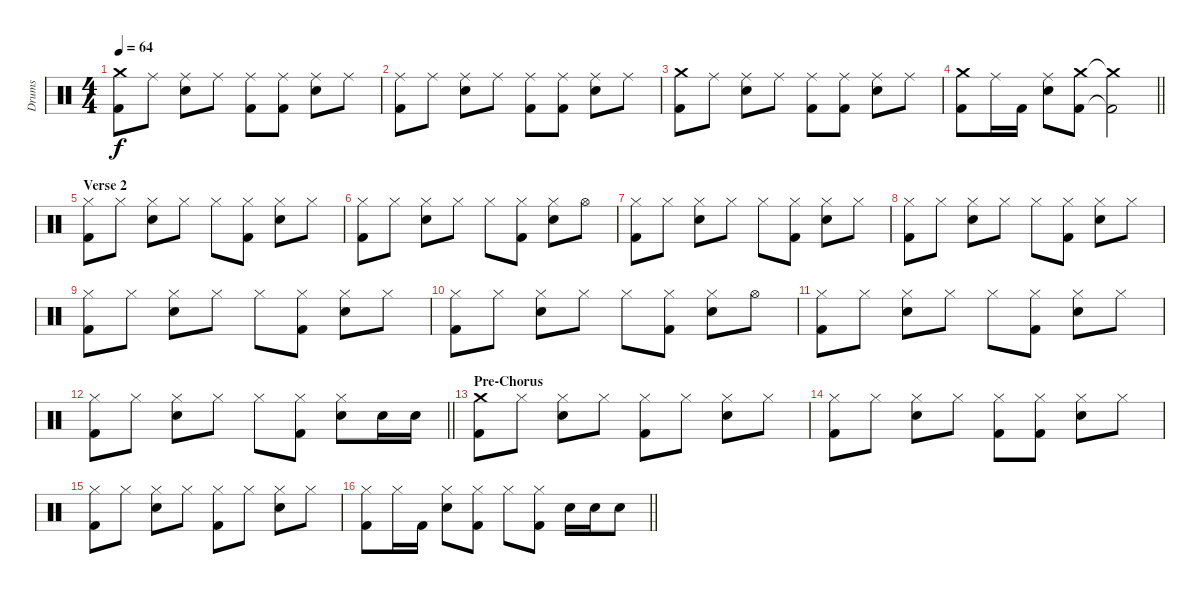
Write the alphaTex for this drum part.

\track ("Drums" "Drums") {instrument percussion}
\staff {score}
\articulation defaults
\ts (4 4)
\tempo 64
\clef neutral
\ks c
("Crash medium (hit)" "Kick (hit) 2").8{dy f} "Ride (middle)".8 ("Ride (middle)" "Snare (hit) 2").8 "Ride (middle)".8 ("Ride (middle)" "Kick (hit) 2").8 ("Ride (middle)" "Kick (hit) 2").8 ("Ride (middle)" "Snare (hit) 2").8 "Ride (middle)".8 |
("Ride (middle)" "Kick (hit) 2").8 "Ride (middle)".8 ("Ride (middle)" "Snare (hit) 2").8 "Ride (middle)".8 ("Ride (middle)" "Kick (hit) 2").8 ("Ride (middle)" "Kick (hit) 2").8 ("Ride (middle)" "Snare (hit) 2").8 "Ride (middle)".8 |
("Crash medium (hit)" "Kick (hit) 2").8 "Ride (middle)".8 ("Ride (middle)" "Snare (hit) 2").8 "Ride (middle)".8 ("Ride (middle)" "Kick (hit) 2").8 ("Ride (middle)" "Kick (hit) 2").8 ("Ride (middle)" "Snare (hit) 2").8 "Ride (middle)".8 |
\barLineRight lightlight
("Crash medium (hit)" "Kick (hit) 2").8 "Ride (middle)".16 "Kick (hit) 2".16 ("Ride (middle)" "Snare (hit) 2").8 ("Crash medium (hit)" "Kick (hit) 2").8 ("Crash medium (hit)"{t} "Kick (hit) 2"{t}).2 |
\section ("" "Verse 2")
("Hi-Hat (closed)" "Kick (hit) 2").8 "Hi-Hat (closed)".8 ("Hi-Hat (closed)" "Snare (hit) 2").8 "Hi-Hat (closed)".8 "Hi-Hat (closed)".8 ("Hi-Hat (closed)" "Kick (hit) 2").8 ("Hi-Hat (closed)" "Snare (hit) 2").8 "Hi-Hat (closed)".8 |
("Hi-Hat (closed)" "Kick (hit) 2").8 "Hi-Hat (closed)".8 ("Hi-Hat (closed)" "Snare (hit) 2").8 "Hi-Hat (closed)".8 "Hi-Hat (closed)".8 ("Hi-Hat (closed)" "Kick (hit) 2").8 ("Hi-Hat (closed)" "Snare (hit) 2").8 "Hi-Hat (open)".8 |
("Hi-Hat (closed)" "Kick (hit) 2").8 "Hi-Hat (closed)".8 ("Hi-Hat (closed)" "Snare (hit) 2").8 "Hi-Hat (closed)".8 "Hi-Hat (closed)".8 ("Hi-Hat (closed)" "Kick (hit) 2").8 ("Hi-Hat (closed)" "Snare (hit) 2").8 "Hi-Hat (closed)".8 |
("Hi-Hat (closed)" "Kick (hit) 2").8 "Hi-Hat (closed)".8 ("Hi-Hat (closed)" "Snare (hit) 2").8 "Hi-Hat (closed)".8 "Hi-Hat (closed)".8 ("Hi-Hat (closed)" "Kick (hit) 2").8 ("Hi-Hat (closed)" "Snare (hit) 2").8 "Hi-Hat (closed)".8 |
("Hi-Hat (closed)" "Kick (hit) 2").8 "Hi-Hat (closed)".8 ("Hi-Hat (closed)" "Snare (hit) 2").8 "Hi-Hat (closed)".8 "Hi-Hat (closed)".8 ("Hi-Hat (closed)" "Kick (hit) 2").8 ("Hi-Hat (closed)" "Snare (hit) 2").8 "Hi-Hat (closed)".8 |
("Hi-Hat (closed)" "Kick (hit) 2").8 "Hi-Hat (closed)".8 ("Hi-Hat (closed)" "Snare (hit) 2").8 "Hi-Hat (closed)".8 "Hi-Hat (closed)".8 ("Hi-Hat (closed)" "Kick (hit) 2").8 ("Hi-Hat (closed)" "Snare (hit) 2").8 "Hi-Hat (open)".8 |
("Hi-Hat (closed)" "Kick (hit) 2").8 "Hi-Hat (closed)".8 ("Hi-Hat (closed)" "Snare (hit) 2").8 "Hi-Hat (closed)".8 "Hi-Hat (closed)".8 ("Hi-Hat (closed)" "Kick (hit) 2").8 ("Hi-Hat (closed)" "Snare (hit) 2").8 "Hi-Hat (closed)".8 |
\barLineRight lightlight
("Hi-Hat (closed)" "Kick (hit) 2").8 "Hi-Hat (closed)".8 ("Hi-Hat (closed)" "Snare (hit) 2").8 "Hi-Hat (closed)".8 "Hi-Hat (closed)".8 ("Hi-Hat (closed)" "Kick (hit) 2").8 ("Hi-Hat (closed)" "Snare (hit) 2").8 "Snare (hit) 2".16 "Snare (hit) 2".16 |
\section ("" "Pre-Chorus")
("Crash medium (hit)" "Kick (hit) 2").8 "Hi-Hat (closed)".8 ("Hi-Hat (closed)" "Snare (hit) 2").8 "Hi-Hat (closed)".8 ("Hi-Hat (closed)" "Kick (hit) 2").8 "Hi-Hat (closed)".8 ("Hi-Hat (closed)" "Snare (hit) 2").8 "Hi-Hat (closed)".8 |
("Hi-Hat (closed)" "Kick (hit) 2").8 "Hi-Hat (closed)".8 ("Hi-Hat (closed)" "Snare (hit) 2").8 "Hi-Hat (closed)".8 ("Hi-Hat (closed)" "Kick (hit) 2").8 ("Hi-Hat (closed)" "Kick (hit) 2").8 ("Hi-Hat (closed)" "Snare (hit) 2").8 "Hi-Hat (closed)".8 |
("Hi-Hat (closed)" "Kick (hit) 2").8 "Hi-Hat (closed)".8 ("Hi-Hat (closed)" "Snare (hit) 2").8 "Hi-Hat (closed)".8 ("Hi-Hat (closed)" "Kick (hit) 2").8 "Hi-Hat (closed)".8 ("Hi-Hat (closed)" "Snare (hit) 2").8 "Hi-Hat (closed)".8 |
\barLineRight lightlight
("Hi-Hat (closed)" "Kick (hit) 2").8 "Hi-Hat (closed)".16 "Kick (hit) 2".16 ("Hi-Hat (closed)" "Snare (hit) 2").8 ("Hi-Hat (closed)" "Kick (hit) 2").8 "Hi-Hat (closed)".8 ("Hi-Hat (closed)" "Kick (hit) 2").8 "Snare (hit) 2".16 "Snare (hit) 2".16 "Snare (hit) 2".8
